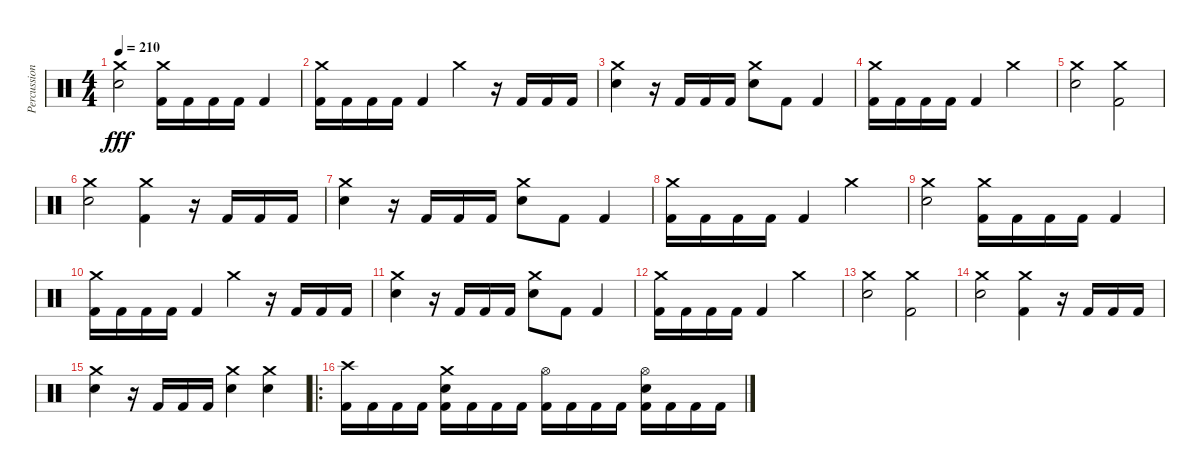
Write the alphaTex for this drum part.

\track ("Percussion" "Percussion") {instrument percussion}
\staff
\articulation defaults
\ts (4 4)
\tempo 210
\clef neutral
\ks c
("Crash medium (hit)" "Electric Snare (hit)").2{dy fff} ("Crash medium (hit)" "Kick (hit) 2").16 "Kick (hit) 2".16 "Kick (hit) 2".16 "Kick (hit) 2".16 "Kick (hit) 2".4 |
("Crash medium (hit)" "Kick (hit) 2").16 "Kick (hit) 2".16 "Kick (hit) 2".16 "Kick (hit) 2".16 "Kick (hit) 2".4 "Crash medium (hit)".4 r.16 "Kick (hit) 2".16 "Kick (hit) 2".16 "Kick (hit) 2".16 |
("Crash medium (hit)" "Electric Snare (hit)").4 r.16 "Kick (hit) 2".16 "Kick (hit) 2".16 "Kick (hit) 2".16 ("Crash medium (hit)" "Electric Snare (hit)").8 "Kick (hit) 2".8 "Kick (hit) 2".4 |
("Crash medium (hit)" "Kick (hit) 2").16 "Kick (hit) 2".16 "Kick (hit) 2".16 "Kick (hit) 2".16 "Kick (hit) 2".4 "Crash medium (hit)".2 |
("Crash medium (hit)" "Electric Snare (hit)").2 ("Crash medium (hit)" "Kick (hit) 2").2 |
("Crash medium (hit)" "Electric Snare (hit)").2 ("Crash medium (hit)" "Kick (hit) 2").4 r.16 "Kick (hit) 2".16 "Kick (hit) 2".16 "Kick (hit) 2".16 |
("Crash medium (hit)" "Electric Snare (hit)").4 r.16 "Kick (hit) 2".16 "Kick (hit) 2".16 "Kick (hit) 2".16 ("Crash medium (hit)" "Electric Snare (hit)").8 "Kick (hit) 2".8 "Kick (hit) 2".4 |
("Crash medium (hit)" "Kick (hit) 2").16 "Kick (hit) 2".16 "Kick (hit) 2".16 "Kick (hit) 2".16 "Kick (hit) 2".4 "Crash medium (hit)".2 |
("Crash medium (hit)" "Electric Snare (hit)").2 ("Crash medium (hit)" "Kick (hit) 2").16 "Kick (hit) 2".16 "Kick (hit) 2".16 "Kick (hit) 2".16 "Kick (hit) 2".4 |
("Crash medium (hit)" "Kick (hit) 2").16 "Kick (hit) 2".16 "Kick (hit) 2".16 "Kick (hit) 2".16 "Kick (hit) 2".4 "Crash medium (hit)".4 r.16 "Kick (hit) 2".16 "Kick (hit) 2".16 "Kick (hit) 2".16 |
("Crash medium (hit)" "Electric Snare (hit)").4 r.16 "Kick (hit) 2".16 "Kick (hit) 2".16 "Kick (hit) 2".16 ("Crash medium (hit)" "Electric Snare (hit)").8 "Kick (hit) 2".8 "Kick (hit) 2".4 |
("Crash medium (hit)" "Kick (hit) 2").16 "Kick (hit) 2".16 "Kick (hit) 2".16 "Kick (hit) 2".16 "Kick (hit) 2".4 "Crash medium (hit)".2 |
("Crash medium (hit)" "Electric Snare (hit)").2 ("Crash medium (hit)" "Kick (hit) 2").2 |
("Crash medium (hit)" "Electric Snare (hit)").2 ("Crash medium (hit)" "Kick (hit) 2").4 r.16 "Kick (hit) 2".16 "Kick (hit) 2".16 "Kick (hit) 2".16 |
("Crash medium (hit)" "Electric Snare (hit)").4 r.16 "Kick (hit) 2".16 "Kick (hit) 2".16 "Kick (hit) 2".16 ("Crash medium (hit)" "Electric Snare (hit)").4 ("Crash medium (hit)" "Electric Snare (hit)").4 |
\ro
("Crash high (hit)" "Kick (hit) 2").16 "Kick (hit) 2".16 "Kick (hit) 2".16 "Kick (hit) 2".16 ("Crash medium (hit)" "Electric Snare (hit)" "Kick (hit) 2").16 "Kick (hit) 2".16 "Kick (hit) 2".16 "Kick (hit) 2".16 ("Hi-Hat (open)" "Kick (hit) 2").16 "Kick (hit) 2".16 "Kick (hit) 2".16 "Kick (hit) 2".16 ("Hi-Hat (open)" "Electric Snare (hit)" "Kick (hit) 2").16 "Kick (hit) 2".16 "Kick (hit) 2".16 "Kick (hit) 2".16
